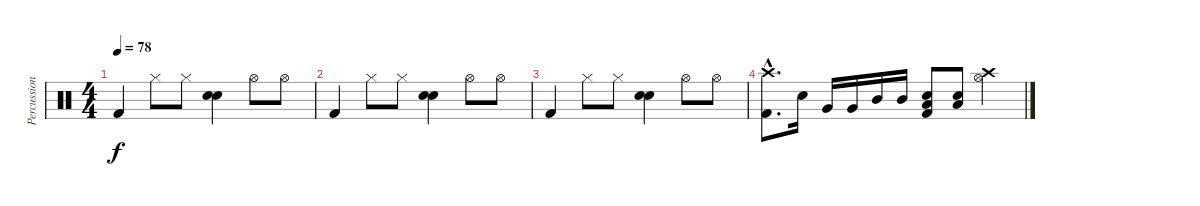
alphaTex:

\track ("Percussion" "Percussion") {instrument percussion}
\staff {score}
\articulation defaults
\ts (4 4)
\tempo 78
\clef neutral
\ks c "Kick (hit) 2".4{dy f} "Hi-Hat (closed)".8 "Hi-Hat (closed)".8
("Electric Snare (hit)" "Snare (hit) 2").4 "Hi-Hat (open)".8 "Hi-Hat (open)".8 |
"Kick (hit) 2".4 "Hi-Hat (closed)".8 "Hi-Hat (closed)".8 ("Electric Snare (hit)" "Snare (hit) 2").4 "Hi-Hat (open)".8 "Hi-Hat (open)".8 |
"Kick (hit) 2".4 "Hi-Hat (closed)".8 "Hi-Hat (closed)".8 ("Electric Snare (hit)" "Snare (hit) 2").4 "Hi-Hat (open)".8 "Hi-Hat (open)".8 |
("Crash high (hit)"{hac} "Kick (hit) 2"{hac}).8{d} "Electric Snare (hit)".16 "Very Low Tom (hit)".16 "Very Low Tom (hit)".16 "Mid Tom (hit)".16 "Mid Tom (hit)".16 ("Low Floor Tom (hit)" "Snare (hit) 2" "Kick (hit) 2").8 ("Low Floor Tom (hit)" "Electric Snare (hit)").8 ("Crash high (hit)" "Hi-Hat (open)").4
